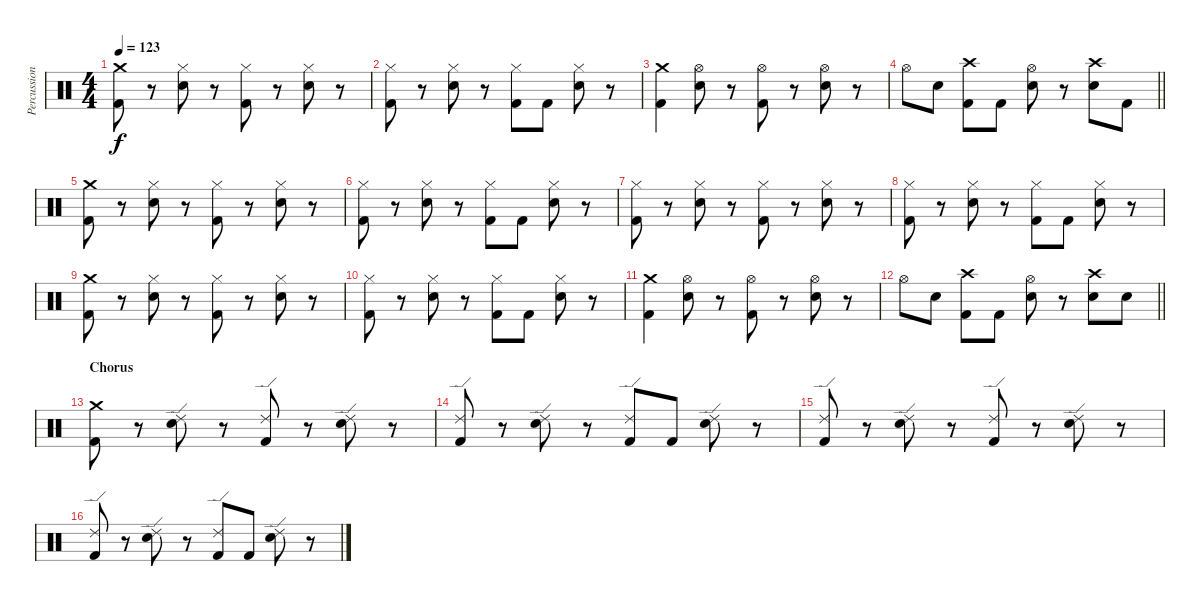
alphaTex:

\track ("Percussion" "Percussion") {instrument percussion}
\staff {score}
\articulation defaults
\ts (4 4)
\tempo 123
\clef neutral
\ks c
("Crash medium (hit)" "Kick (hit) 2").8{dy f} r.8 ("Hi-Hat (closed)" "Electric Snare (hit)").8 r.8 ("Hi-Hat (closed)" "Kick (hit) 2").8 r.8 ("Hi-Hat (closed)" "Electric Snare (hit)").8 r.8 |
("Hi-Hat (closed)" "Kick (hit) 2").8 r.8 ("Hi-Hat (closed)" "Electric Snare (hit)").8 r.8 ("Hi-Hat (closed)" "Kick (hit) 2").8 "Kick (hit) 2".8 ("Hi-Hat (closed)" "Electric Snare (hit)").8 r.8 |
("Crash medium (hit)" "Kick (hit) 2").4 ("Hi-Hat (open)" "Electric Snare (hit)").8 r.8 ("Hi-Hat (open)" "Kick (hit) 2").8 r.8 ("Hi-Hat (open)" "Electric Snare (hit)").8 r.8 |
\barLineRight lightlight "Hi-Hat (open)".8 "Electric Snare (hit)".8
("Crash high (hit)" "Kick (hit) 2").8 "Kick (hit) 2".8 ("Hi-Hat (open)" "Electric Snare (hit)").8 r.8 ("Crash high (hit)" "Electric Snare (hit)").8 "Kick (hit) 2".8 |
("Crash medium (hit)" "Kick (hit) 2").8 r.8 ("Hi-Hat (closed)" "Electric Snare (hit)").8 r.8 ("Hi-Hat (closed)" "Kick (hit) 2").8 r.8 ("Hi-Hat (closed)" "Electric Snare (hit)").8 r.8 |
("Hi-Hat (closed)" "Kick (hit) 2").8 r.8 ("Hi-Hat (closed)" "Electric Snare (hit)").8 r.8 ("Hi-Hat (closed)" "Kick (hit) 2").8 "Kick (hit) 2".8 ("Hi-Hat (closed)" "Electric Snare (hit)").8 r.8 |
("Hi-Hat (closed)" "Kick (hit) 2").8 r.8 ("Hi-Hat (closed)" "Electric Snare (hit)").8 r.8 ("Hi-Hat (closed)" "Kick (hit) 2").8 r.8 ("Hi-Hat (closed)" "Electric Snare (hit)").8 r.8 |
("Hi-Hat (closed)" "Kick (hit) 2").8 r.8 ("Hi-Hat (closed)" "Electric Snare (hit)").8 r.8 ("Hi-Hat (closed)" "Kick (hit) 2").8 "Kick (hit) 2".8 ("Hi-Hat (closed)" "Electric Snare (hit)").8 r.8 |
("Crash medium (hit)" "Kick (hit) 2").8 r.8 ("Hi-Hat (closed)" "Electric Snare (hit)").8 r.8 ("Hi-Hat (closed)" "Kick (hit) 2").8 r.8 ("Hi-Hat (closed)" "Electric Snare (hit)").8 r.8 |
("Hi-Hat (closed)" "Kick (hit) 2").8 r.8 ("Hi-Hat (closed)" "Electric Snare (hit)").8 r.8 ("Hi-Hat (closed)" "Kick (hit) 2").8 "Kick (hit) 2".8 ("Hi-Hat (closed)" "Electric Snare (hit)").8 r.8 |
("Crash medium (hit)" "Kick (hit) 2").4 ("Hi-Hat (open)" "Electric Snare (hit)").8 r.8 ("Hi-Hat (open)" "Kick (hit) 2").8 r.8 ("Hi-Hat (open)" "Electric Snare (hit)").8 r.8 |
\barLineRight lightlight "Hi-Hat (open)".8 "Electric Snare (hit)".8
("Crash high (hit)" "Kick (hit) 2").8 "Kick (hit) 2".8 ("Hi-Hat (open)" "Electric Snare (hit)").8 r.8 ("Crash high (hit)" "Electric Snare (hit)").8 "Electric Snare (hit)".8 |
\section ("" "Chorus")
("Crash medium (hit)" "Kick (hit) 2").8 r.8 ("Ride (edge) 2" "Electric Snare (hit)").8 r.8 ("Ride (edge) 2" "Kick (hit) 2").8 r.8 ("Ride (edge) 2" "Electric Snare (hit)").8 r.8 |
("Ride (edge) 2" "Kick (hit) 2").8 r.8 ("Ride (edge) 2" "Electric Snare (hit)").8 r.8 ("Ride (edge) 2" "Kick (hit) 2").8 "Kick (hit) 2".8 ("Ride (edge) 2" "Electric Snare (hit)").8 r.8 |
("Ride (edge) 2" "Kick (hit) 2").8 r.8 ("Ride (edge) 2" "Electric Snare (hit)").8 r.8 ("Ride (edge) 2" "Kick (hit) 2").8 r.8 ("Ride (edge) 2" "Electric Snare (hit)").8 r.8 |
("Ride (edge) 2" "Kick (hit) 2").8 r.8 ("Ride (edge) 2" "Electric Snare (hit)").8 r.8 ("Ride (edge) 2" "Kick (hit) 2").8 "Kick (hit) 2".8 ("Ride (edge) 2" "Electric Snare (hit)").8 r.8
